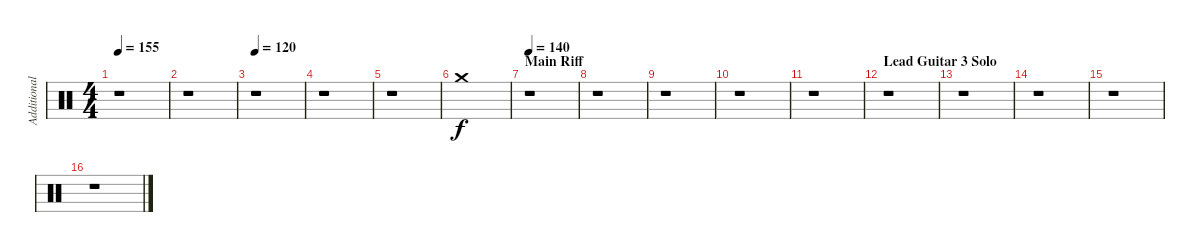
\track ("Additional Drums" "Additional") {instrument percussion}
\staff {score}
\articulation defaults
\ts (4 4)
\tempo 155
\clef neutral
\ks c
r.1{dy f} |
r.1 |
\tempo 120
r.1 |
r.1 |
r.1 |
"Crash medium (hit)".1 |
\section ("" "Main Riff")
\tempo 140
r.1 |
r.1 |
r.1 |
r.1 |
r.1 |
\section ("" "Lead Guitar 3 Solo")
r.1 |
r.1 |
r.1 |
r.1 |
r.1
